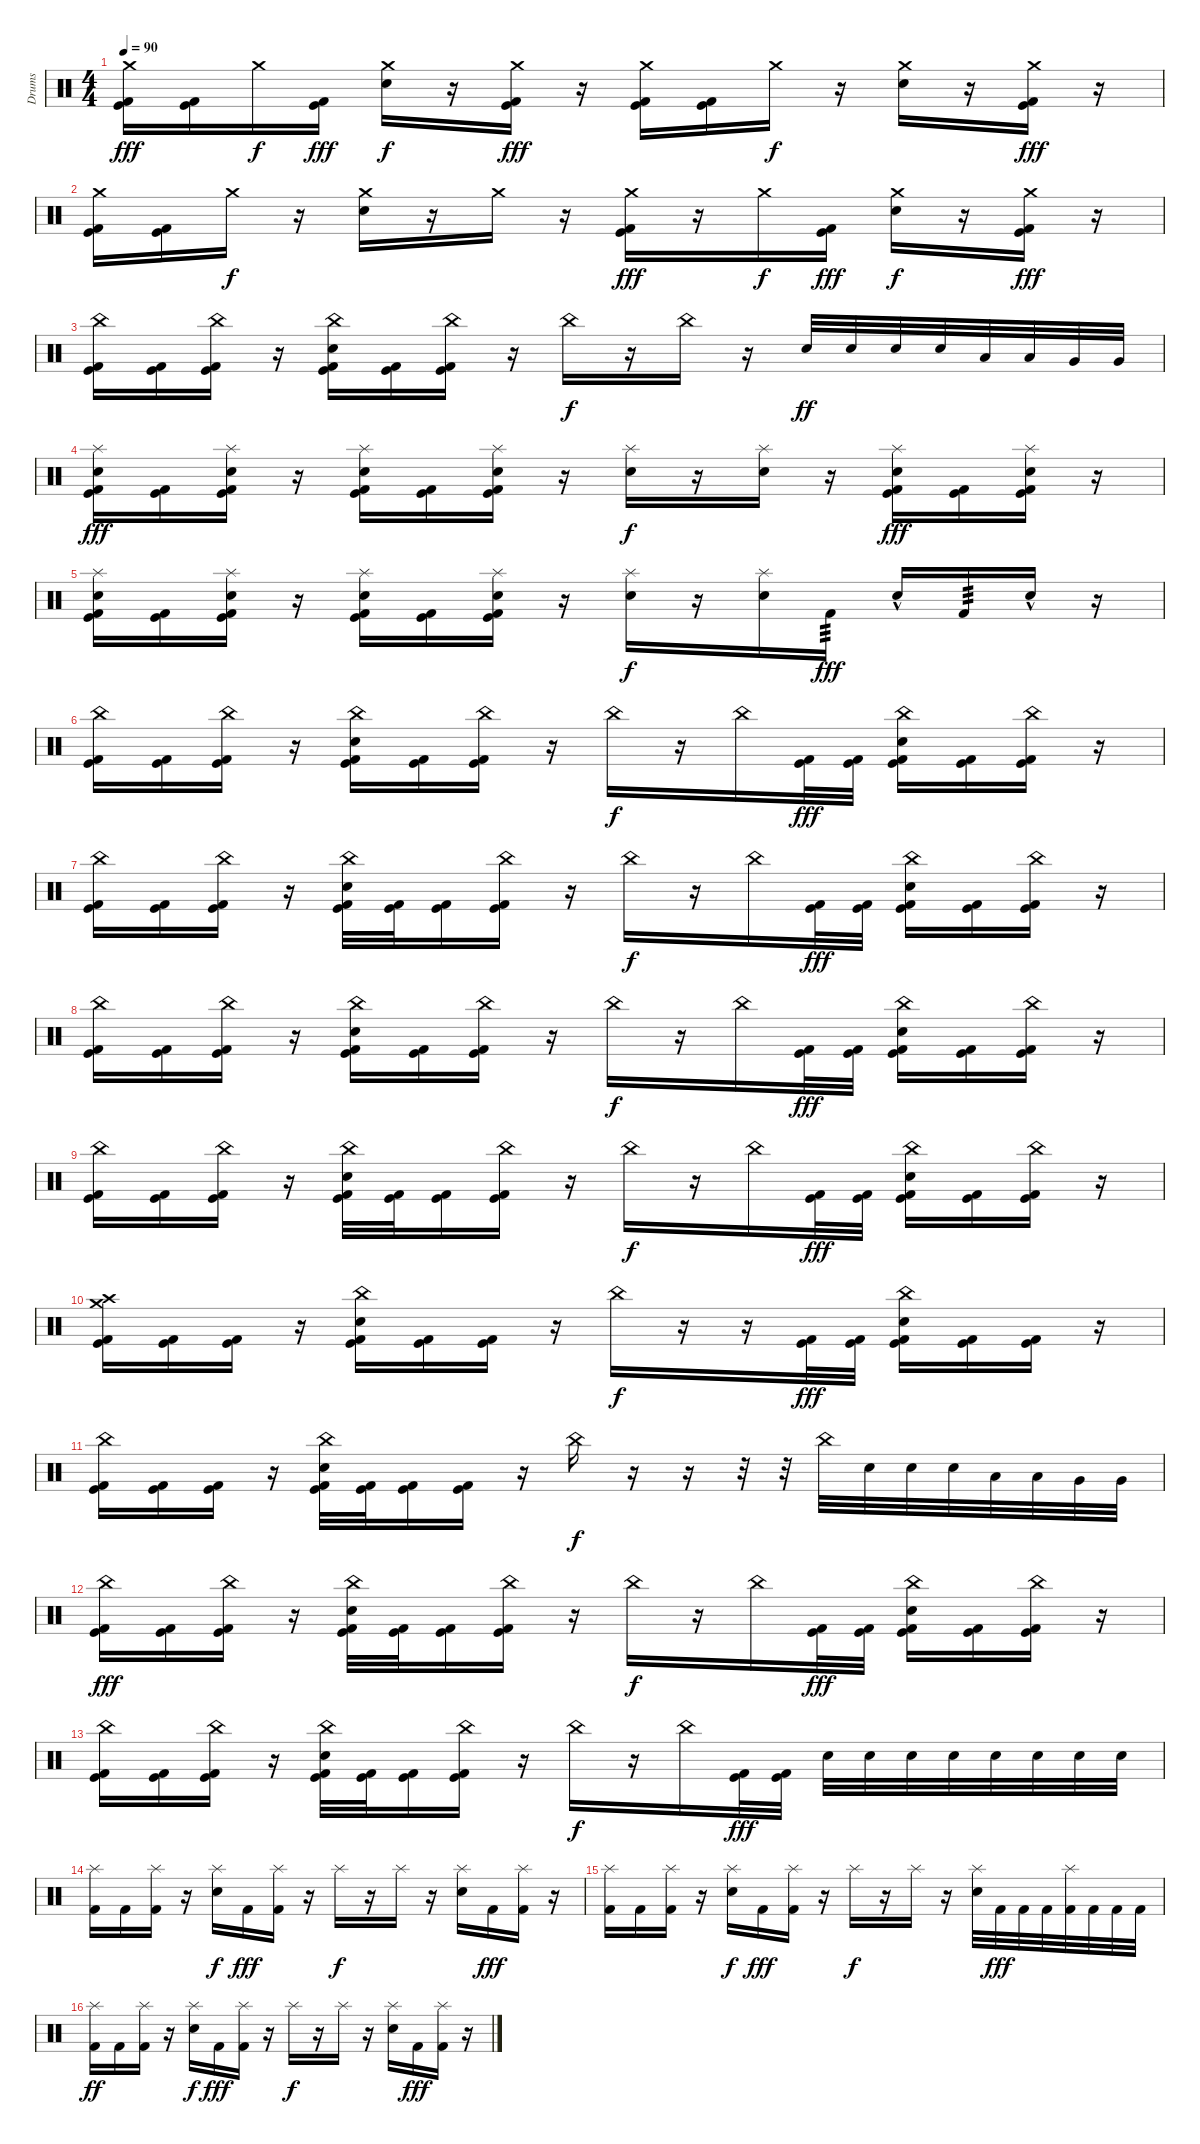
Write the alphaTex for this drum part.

\track ("Drums" "Drums") {instrument percussion}
\staff {score}
\articulation defaults
\ts (4 4)
\tempo 90
\clef neutral
\ks c
("Crash medium (hit)" "Kick (hit)" "Kick (hit) 2").16{dy fff} ("Kick (hit)" "Kick (hit) 2").16 "Crash medium (hit)".16{dy f} ("Kick (hit)" "Kick (hit) 2").16{dy fff} ("Crash medium (hit)" "Electric Snare (hit)").16{dy f} r.16 ("Crash medium (hit)" "Kick (hit)" "Kick (hit) 2").16{dy fff} r.16 ("Crash medium (hit)" "Kick (hit)" "Kick (hit) 2").16 ("Kick (hit)" "Kick (hit) 2").16 "Crash medium (hit)".16{dy f} r.16 ("Crash medium (hit)" "Electric Snare (hit)").16 r.16 ("Crash medium (hit)" "Kick (hit)" "Kick (hit) 2").16{dy fff} r.16 |
("Crash medium (hit)" "Kick (hit)" "Kick (hit) 2").16 ("Kick (hit)" "Kick (hit) 2").16 "Crash medium (hit)".16{dy f} r.16 ("Crash medium (hit)" "Electric Snare (hit)").16 r.16 "Crash medium (hit)".16 r.16 ("Crash medium (hit)" "Kick (hit)" "Kick (hit) 2").16{dy fff} r.16 "Crash medium (hit)".16{dy f} ("Kick (hit)" "Kick (hit) 2").16{dy fff} ("Crash medium (hit)" "Electric Snare (hit)").16{dy f} r.16 ("Crash medium (hit)" "Kick (hit)" "Kick (hit) 2").16{dy fff} r.16 |
("China (hit)" "Kick (hit)" "Kick (hit) 2").16 ("Kick (hit)" "Kick (hit) 2").16 ("China (hit)" "Kick (hit)" "Kick (hit) 2").16 r.16 ("China (hit)" "Electric Snare (hit)" "Kick (hit)" "Kick (hit) 2").16 ("Kick (hit)" "Kick (hit) 2").16 ("China (hit)" "Kick (hit)" "Kick (hit) 2").16 r.16 "China (hit)".16{dy f} r.16 "China (hit)".16 r.16 "Electric Snare (hit)".32{dy ff} "Electric Snare (hit)".32 "Electric Snare (hit)".32 "Electric Snare (hit)".32 "Low Tom (hit)".32 "Low Tom (hit)".32 "Very Low Tom (hit)".32 "Very Low Tom (hit)".32 |
("Splash (hit)" "Electric Snare (hit)" "Kick (hit)" "Kick (hit) 2").16{dy fff} ("Kick (hit)" "Kick (hit) 2").16 ("Splash (hit)" "Electric Snare (hit)" "Kick (hit)" "Kick (hit) 2").16 r.16 ("Splash (hit)" "Electric Snare (hit)" "Kick (hit)" "Kick (hit) 2").16 ("Kick (hit)" "Kick (hit) 2").16 ("Splash (hit)" "Electric Snare (hit)" "Kick (hit)" "Kick (hit) 2").16 r.16 ("Splash (hit)" "Electric Snare (hit)").16{dy f} r.16 ("Splash (hit)" "Electric Snare (hit)").16 r.16 ("Splash (hit)" "Electric Snare (hit)" "Kick (hit)" "Kick (hit) 2").16{dy fff} ("Kick (hit)" "Kick (hit) 2").16 ("Splash (hit)" "Electric Snare (hit)" "Kick (hit)" "Kick (hit) 2").16 r.16 |
("Splash (hit)" "Electric Snare (hit)" "Kick (hit)" "Kick (hit) 2").16 ("Kick (hit)" "Kick (hit) 2").16 ("Splash (hit)" "Electric Snare (hit)" "Kick (hit)" "Kick (hit) 2").16 r.16 ("Splash (hit)" "Electric Snare (hit)" "Kick (hit)" "Kick (hit) 2").16 ("Kick (hit)" "Kick (hit) 2").16 ("Splash (hit)" "Electric Snare (hit)" "Kick (hit)" "Kick (hit) 2").16 r.16 ("Splash (hit)" "Electric Snare (hit)").16{dy f} r.16 ("Splash (hit)" "Electric Snare (hit)").16 "Kick (hit) 2".16{tp 3 dy fff} "Electric Snare (hit)"{hac}.16 "Kick (hit) 2".16{tp 3} "Electric Snare (hit)"{hac}.16 r.16 |
("China (hit)" "Kick (hit)" "Kick (hit) 2").16 ("Kick (hit)" "Kick (hit) 2").16 ("China (hit)" "Kick (hit)" "Kick (hit) 2").16 r.16 ("China (hit)" "Electric Snare (hit)" "Kick (hit)" "Kick (hit) 2").16 ("Kick (hit)" "Kick (hit) 2").16 ("China (hit)" "Kick (hit)" "Kick (hit) 2").16 r.16 "China (hit)".16{dy f} r.16 "China (hit)".16 ("Kick (hit)" "Kick (hit) 2").32{dy fff} ("Kick (hit)" "Kick (hit) 2").32 ("China (hit)" "Electric Snare (hit)" "Kick (hit)" "Kick (hit) 2").16 ("Kick (hit)" "Kick (hit) 2").16 ("China (hit)" "Kick (hit)" "Kick (hit) 2").16 r.16 |
("China (hit)" "Kick (hit)" "Kick (hit) 2").16 ("Kick (hit)" "Kick (hit) 2").16 ("China (hit)" "Kick (hit)" "Kick (hit) 2").16 r.16 ("China (hit)" "Electric Snare (hit)" "Kick (hit)" "Kick (hit) 2").32 ("Kick (hit)" "Kick (hit) 2").32 ("Kick (hit)" "Kick (hit) 2").16 ("China (hit)" "Kick (hit)" "Kick (hit) 2").16 r.16 "China (hit)".16{dy f} r.16 "China (hit)".16 ("Kick (hit)" "Kick (hit) 2").32{dy fff} ("Kick (hit)" "Kick (hit) 2").32 ("China (hit)" "Electric Snare (hit)" "Kick (hit)" "Kick (hit) 2").16 ("Kick (hit)" "Kick (hit) 2").16 ("China (hit)" "Kick (hit)" "Kick (hit) 2").16 r.16 |
("China (hit)" "Kick (hit)" "Kick (hit) 2").16 ("Kick (hit)" "Kick (hit) 2").16 ("China (hit)" "Kick (hit)" "Kick (hit) 2").16 r.16 ("China (hit)" "Electric Snare (hit)" "Kick (hit)" "Kick (hit) 2").16 ("Kick (hit)" "Kick (hit) 2").16 ("China (hit)" "Kick (hit)" "Kick (hit) 2").16 r.16 "China (hit)".16{dy f} r.16 "China (hit)".16 ("Kick (hit)" "Kick (hit) 2").32{dy fff} ("Kick (hit)" "Kick (hit) 2").32 ("China (hit)" "Electric Snare (hit)" "Kick (hit)" "Kick (hit) 2").16 ("Kick (hit)" "Kick (hit) 2").16 ("China (hit)" "Kick (hit)" "Kick (hit) 2").16 r.16 |
("China (hit)" "Kick (hit)" "Kick (hit) 2").16 ("Kick (hit)" "Kick (hit) 2").16 ("China (hit)" "Kick (hit)" "Kick (hit) 2").16 r.16 ("China (hit)" "Electric Snare (hit)" "Kick (hit)" "Kick (hit) 2").32 ("Kick (hit)" "Kick (hit) 2").32 ("Kick (hit)" "Kick (hit) 2").16 ("China (hit)" "Kick (hit)" "Kick (hit) 2").16 r.16 "China (hit)".16{dy f} r.16 "China (hit)".16 ("Kick (hit)" "Kick (hit) 2").32{dy fff} ("Kick (hit)" "Kick (hit) 2").32 ("China (hit)" "Electric Snare (hit)" "Kick (hit)" "Kick (hit) 2").16 ("Kick (hit)" "Kick (hit) 2").16 ("China (hit)" "Kick (hit)" "Kick (hit) 2").16 r.16 |
("Crash medium (hit)" "Crash high (hit)" "Kick (hit)" "Kick (hit) 2").16 ("Kick (hit)" "Kick (hit) 2").16 ("Kick (hit)" "Kick (hit) 2").16 r.16 ("China (hit)" "Electric Snare (hit)" "Kick (hit)" "Kick (hit) 2").16 ("Kick (hit)" "Kick (hit) 2").16 ("Kick (hit)" "Kick (hit) 2").16 r.16 "China (hit)".16{dy f} r.16 r.16 ("Kick (hit)" "Kick (hit) 2").32{dy fff} ("Kick (hit)" "Kick (hit) 2").32 ("China (hit)" "Electric Snare (hit)" "Kick (hit)" "Kick (hit) 2").16 ("Kick (hit)" "Kick (hit) 2").16 ("Kick (hit)" "Kick (hit) 2").16 r.16 |
("China (hit)" "Kick (hit)" "Kick (hit) 2").16 ("Kick (hit)" "Kick (hit) 2").16 ("Kick (hit)" "Kick (hit) 2").16 r.16 ("China (hit)" "Electric Snare (hit)" "Kick (hit)" "Kick (hit) 2").32 ("Kick (hit)" "Kick (hit) 2").32 ("Kick (hit)" "Kick (hit) 2").16 ("Kick (hit)" "Kick (hit) 2").16 r.16 "China (hit)".16{dy f} r.16 r.16 r.32 r.32 "China (hit)".32 "Electric Snare (hit)".32 "Electric Snare (hit)".32 "Electric Snare (hit)".32 "Low Tom (hit)".32 "Low Tom (hit)".32 "Very Low Tom (hit)".32 "Very Low Tom (hit)".32 |
("China (hit)" "Kick (hit)" "Kick (hit) 2").16{dy fff} ("Kick (hit)" "Kick (hit) 2").16 ("China (hit)" "Kick (hit)" "Kick (hit) 2").16 r.16 ("China (hit)" "Electric Snare (hit)" "Kick (hit)" "Kick (hit) 2").32 ("Kick (hit)" "Kick (hit) 2").32 ("Kick (hit)" "Kick (hit) 2").16 ("China (hit)" "Kick (hit)" "Kick (hit) 2").16 r.16 "China (hit)".16{dy f} r.16 "China (hit)".16 ("Kick (hit)" "Kick (hit) 2").32{dy fff} ("Kick (hit)" "Kick (hit) 2").32 ("China (hit)" "Electric Snare (hit)" "Kick (hit)" "Kick (hit) 2").16 ("Kick (hit)" "Kick (hit) 2").16 ("China (hit)" "Kick (hit)" "Kick (hit) 2").16 r.16 |
("China (hit)" "Kick (hit)" "Kick (hit) 2").16 ("Kick (hit)" "Kick (hit) 2").16 ("China (hit)" "Kick (hit)" "Kick (hit) 2").16 r.16 ("China (hit)" "Electric Snare (hit)" "Kick (hit)" "Kick (hit) 2").32 ("Kick (hit)" "Kick (hit) 2").32 ("Kick (hit)" "Kick (hit) 2").16 ("China (hit)" "Kick (hit)" "Kick (hit) 2").16 r.16 "China (hit)".16{dy f} r.16 "China (hit)".16 ("Kick (hit)" "Kick (hit) 2").32{dy fff} ("Kick (hit)" "Kick (hit) 2").32 "Electric Snare (hit)".32 "Electric Snare (hit)".32 "Electric Snare (hit)".32 "Electric Snare (hit)".32 "Electric Snare (hit)".32 "Electric Snare (hit)".32 "Electric Snare (hit)".32 "Electric Snare (hit)".32 |
("Splash (hit)" "Kick (hit) 2").16 "Kick (hit) 2".16 ("Splash (hit)" "Kick (hit) 2").16 r.16 ("Splash (hit)" "Electric Snare (hit)").16{dy f} "Kick (hit) 2".16{dy fff} ("Splash (hit)" "Kick (hit) 2").16 r.16 "Splash (hit)".16{dy f} r.16 "Splash (hit)".16 r.16 ("Splash (hit)" "Electric Snare (hit)").16 "Kick (hit) 2".16{dy fff} ("Splash (hit)" "Kick (hit) 2").16 r.16 |
("Splash (hit)" "Kick (hit) 2").16 "Kick (hit) 2".16 ("Splash (hit)" "Kick (hit) 2").16 r.16 ("Splash (hit)" "Electric Snare (hit)").16{dy f} "Kick (hit) 2".16{dy fff} ("Splash (hit)" "Kick (hit) 2").16 r.16 "Splash (hit)".16{dy f} r.16 "Splash (hit)".16 r.16 ("Splash (hit)" "Electric Snare (hit)").32 "Kick (hit) 2".32{dy fff} "Kick (hit) 2".32 "Kick (hit) 2".32 ("Splash (hit)" "Kick (hit) 2").32 "Kick (hit) 2".32 "Kick (hit) 2".32 "Kick (hit) 2".32 |
("Splash (hit)" "Kick (hit) 2").16{dy ff} "Kick (hit) 2".16 ("Splash (hit)" "Kick (hit) 2").16 r.16 ("Splash (hit)" "Electric Snare (hit)").16{dy f} "Kick (hit) 2".16{dy fff} ("Splash (hit)" "Kick (hit) 2").16 r.16 "Splash (hit)".16{dy f} r.16 "Splash (hit)".16 r.16 ("Splash (hit)" "Electric Snare (hit)").16 "Kick (hit) 2".16{dy fff} ("Splash (hit)" "Kick (hit) 2").16 r.16
